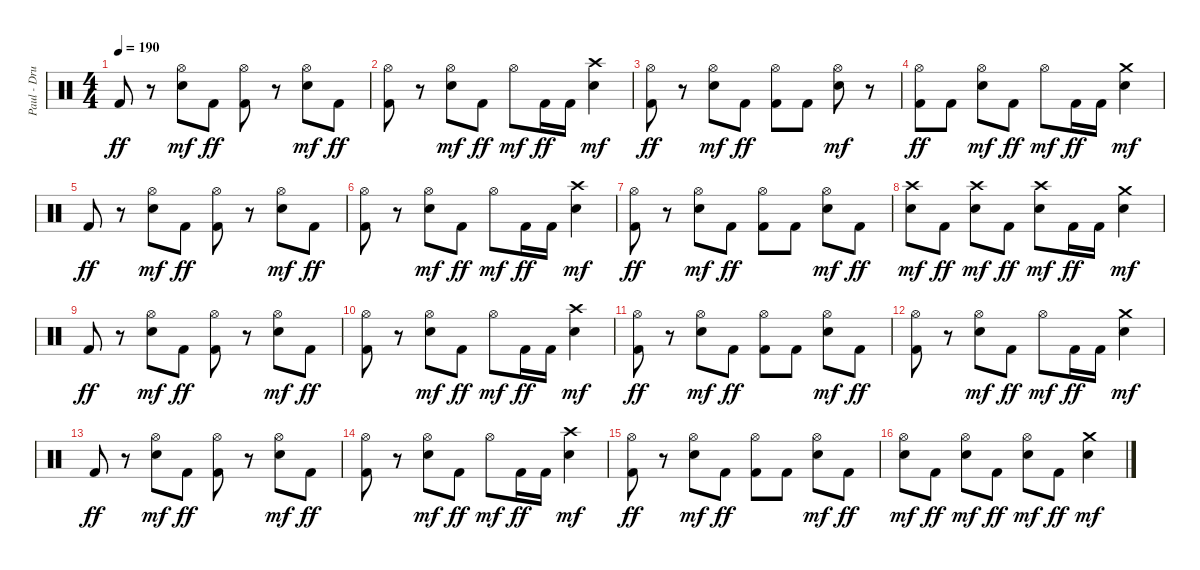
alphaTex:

\track ("Paul - Drums" "Paul - Dru") {instrument percussion}
\staff {score}
\articulation defaults
\ts (4 4)
\tempo 190
\clef neutral
\ks c "Kick (hit) 2".8{dy ff}
r.8 ("Hi-Hat (open)" "Electric Snare (hit)").8{dy mf} "Kick (hit) 2".8{dy ff} ("Hi-Hat (open)" "Kick (hit) 2").8 r.8 ("Hi-Hat (open)" "Electric Snare (hit)").8{dy mf} "Kick (hit) 2".8{dy ff} |
("Hi-Hat (open)" "Kick (hit) 2").8 r.8 ("Hi-Hat (open)" "Electric Snare (hit)").8{dy mf} "Kick (hit) 2".8{dy ff} "Hi-Hat (open)".8{dy mf} "Kick (hit) 2".16{dy ff} "Kick (hit) 2".16 ("Crash high (hit)" "Electric Snare (hit)").4{dy mf} |
("Hi-Hat (open)" "Kick (hit) 2").8{dy ff} r.8 ("Hi-Hat (open)" "Electric Snare (hit)").8{dy mf} "Kick (hit) 2".8{dy ff} ("Hi-Hat (open)" "Kick (hit) 2").8 "Kick (hit) 2".8 ("Hi-Hat (open)" "Electric Snare (hit)").8{dy mf} r.8 |
("Hi-Hat (open)" "Kick (hit) 2").8{dy ff} "Kick (hit) 2".8 ("Hi-Hat (open)" "Electric Snare (hit)").8{dy mf} "Kick (hit) 2".8{dy ff} "Hi-Hat (open)".8{dy mf} "Kick (hit) 2".16{dy ff} "Kick (hit) 2".16 ("Crash medium (hit)" "Electric Snare (hit)").4{dy mf} |
"Kick (hit) 2".8{dy ff} r.8 ("Hi-Hat (open)" "Electric Snare (hit)").8{dy mf} "Kick (hit) 2".8{dy ff} ("Hi-Hat (open)" "Kick (hit) 2").8 r.8 ("Hi-Hat (open)" "Electric Snare (hit)").8{dy mf} "Kick (hit) 2".8{dy ff} |
("Hi-Hat (open)" "Kick (hit) 2").8 r.8 ("Hi-Hat (open)" "Electric Snare (hit)").8{dy mf} "Kick (hit) 2".8{dy ff} "Hi-Hat (open)".8{dy mf} "Kick (hit) 2".16{dy ff} "Kick (hit) 2".16 ("Crash high (hit)" "Electric Snare (hit)").4{dy mf} |
("Hi-Hat (open)" "Kick (hit) 2").8{dy ff} r.8 ("Hi-Hat (open)" "Electric Snare (hit)").8{dy mf} "Kick (hit) 2".8{dy ff} ("Hi-Hat (open)" "Kick (hit) 2").8 "Kick (hit) 2".8 ("Hi-Hat (open)" "Electric Snare (hit)").8{dy mf} "Kick (hit) 2".8{dy ff} |
("Crash high (hit)" "Electric Snare (hit)").8{dy mf} "Kick (hit) 2".8{dy ff} ("Crash high (hit)" "Electric Snare (hit)").8{dy mf} "Kick (hit) 2".8{dy ff} ("Crash high (hit)" "Electric Snare (hit)").8{dy mf} "Kick (hit) 2".16{dy ff} "Kick (hit) 2".16 ("Crash medium (hit)" "Electric Snare (hit)").4{dy mf} |
"Kick (hit) 2".8{dy ff} r.8 ("Hi-Hat (open)" "Electric Snare (hit)").8{dy mf} "Kick (hit) 2".8{dy ff} ("Hi-Hat (open)" "Kick (hit) 2").8 r.8 ("Hi-Hat (open)" "Electric Snare (hit)").8{dy mf} "Kick (hit) 2".8{dy ff} |
("Hi-Hat (open)" "Kick (hit) 2").8 r.8 ("Hi-Hat (open)" "Electric Snare (hit)").8{dy mf} "Kick (hit) 2".8{dy ff} "Hi-Hat (open)".8{dy mf} "Kick (hit) 2".16{dy ff} "Kick (hit) 2".16 ("Crash high (hit)" "Electric Snare (hit)").4{dy mf} |
("Hi-Hat (open)" "Kick (hit) 2").8{dy ff} r.8 ("Hi-Hat (open)" "Electric Snare (hit)").8{dy mf} "Kick (hit) 2".8{dy ff} ("Hi-Hat (open)" "Kick (hit) 2").8 "Kick (hit) 2".8 ("Hi-Hat (open)" "Electric Snare (hit)").8{dy mf} "Kick (hit) 2".8{dy ff} |
("Hi-Hat (open)" "Kick (hit) 2").8 r.8 ("Hi-Hat (open)" "Electric Snare (hit)").8{dy mf} "Kick (hit) 2".8{dy ff} "Hi-Hat (open)".8{dy mf} "Kick (hit) 2".16{dy ff} "Kick (hit) 2".16 ("Crash medium (hit)" "Electric Snare (hit)").4{dy mf} |
"Kick (hit) 2".8{dy ff} r.8 ("Hi-Hat (open)" "Electric Snare (hit)").8{dy mf} "Kick (hit) 2".8{dy ff} ("Hi-Hat (open)" "Kick (hit) 2").8 r.8 ("Hi-Hat (open)" "Electric Snare (hit)").8{dy mf} "Kick (hit) 2".8{dy ff} |
("Hi-Hat (open)" "Kick (hit) 2").8 r.8 ("Hi-Hat (open)" "Electric Snare (hit)").8{dy mf} "Kick (hit) 2".8{dy ff} "Hi-Hat (open)".8{dy mf} "Kick (hit) 2".16{dy ff} "Kick (hit) 2".16 ("Crash high (hit)" "Electric Snare (hit)").4{dy mf} |
("Hi-Hat (open)" "Kick (hit) 2").8{dy ff} r.8 ("Hi-Hat (open)" "Electric Snare (hit)").8{dy mf} "Kick (hit) 2".8{dy ff} ("Hi-Hat (open)" "Kick (hit) 2").8 "Kick (hit) 2".8 ("Hi-Hat (open)" "Electric Snare (hit)").8{dy mf} "Kick (hit) 2".8{dy ff} |
("Hi-Hat (open)" "Electric Snare (hit)").8{dy mf} "Kick (hit) 2".8{dy ff} ("Hi-Hat (open)" "Electric Snare (hit)").8{dy mf} "Kick (hit) 2".8{dy ff} ("Hi-Hat (open)" "Electric Snare (hit)").8{dy mf} "Kick (hit) 2".8{dy ff} ("Crash medium (hit)" "Electric Snare (hit)").4{dy mf}
